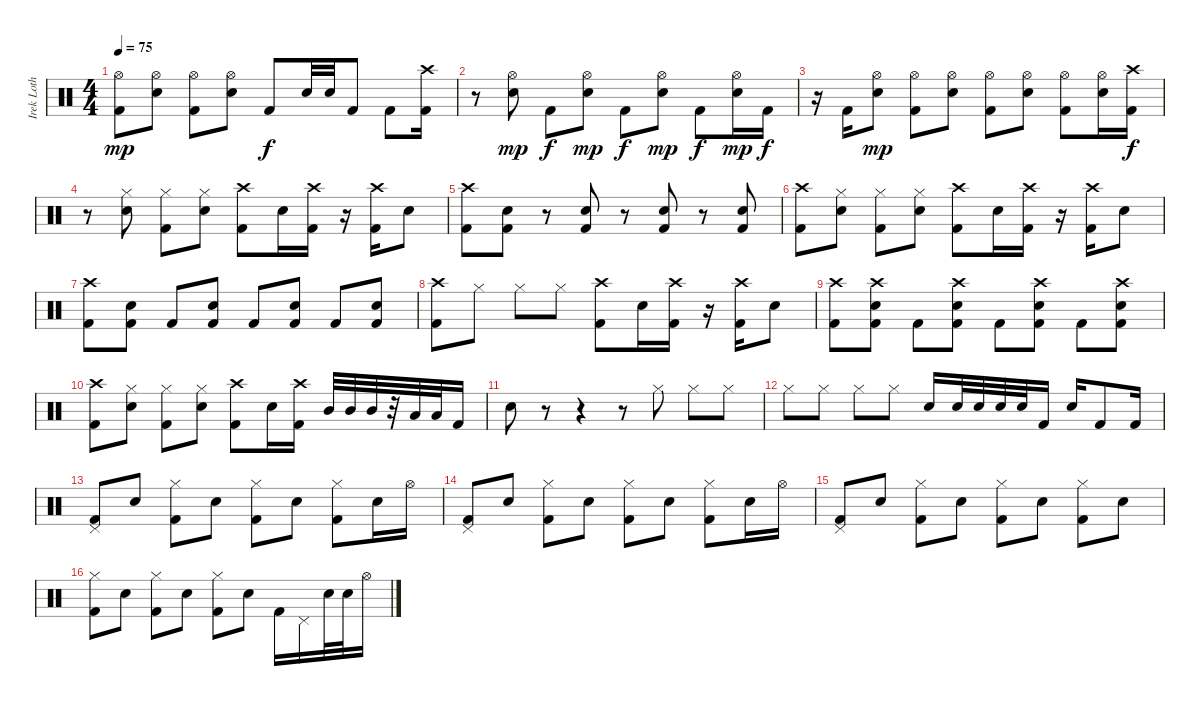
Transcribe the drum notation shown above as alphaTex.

\track ("Irek Loth" "Irek Loth") {instrument percussion}
\staff {score}
\articulation defaults
\ts (4 4)
\tempo 75
\clef neutral
\ks c
("Hi-Hat (open)" "Kick (hit) 2").8{dy mp} ("Snare (hit) 2" "Hi-Hat (open)").8 ("Hi-Hat (open)" "Kick (hit) 2").8 ("Snare (hit) 2" "Hi-Hat (open)").8 "Kick (hit) 2".8{dy f} "Snare (hit) 2".32 "Snare (hit) 2".32 "Kick (hit) 2".8 "Kick (hit) 2".8 ("Crash high (hit)" "Kick (hit) 2").16 |
r.8 ("Snare (hit) 2" "Hi-Hat (open)").8{dy mp} "Kick (hit) 2".8{dy f} ("Snare (hit) 2" "Hi-Hat (open)").8{dy mp} "Kick (hit) 2".8{dy f} ("Snare (hit) 2" "Hi-Hat (open)").8{dy mp} "Kick (hit) 2".8{dy f} ("Snare (hit) 2" "Hi-Hat (open)").16{dy mp} "Kick (hit) 2".16{dy f} |
r.16 "Kick (hit) 2".16 ("Snare (hit) 2" "Hi-Hat (open)").8{dy mp} ("Hi-Hat (open)" "Kick (hit) 2").8 ("Snare (hit) 2" "Hi-Hat (open)").8 ("Hi-Hat (open)" "Kick (hit) 2").8 ("Snare (hit) 2" "Hi-Hat (open)").8 ("Hi-Hat (open)" "Kick (hit) 2").8 ("Snare (hit) 2" "Hi-Hat (open)").16 ("Crash high (hit)" "Kick (hit) 2").16{dy f} |
r.8 ("Snare (hit) 2" "Hi-Hat (closed)").8 ("Hi-Hat (closed)" "Kick (hit) 2").8 ("Snare (hit) 2" "Hi-Hat (closed)").8 ("Crash high (hit)" "Kick (hit) 2").8 "Snare (hit) 2".16 ("Crash high (hit)" "Kick (hit) 2").16 r.16 ("Crash high (hit)" "Kick (hit) 2").16 "Snare (hit) 2".8 |
("Crash high (hit)" "Kick (hit) 2").8 ("Snare (hit) 2" "Kick (hit) 2").8 r.8 ("Snare (hit) 2" "Kick (hit) 2").8 r.8 ("Snare (hit) 2" "Kick (hit) 2").8 r.8 ("Snare (hit) 2" "Kick (hit) 2").8 |
("Crash high (hit)" "Kick (hit) 2").8 ("Snare (hit) 2" "Hi-Hat (closed)").8 ("Hi-Hat (closed)" "Kick (hit) 2").8 ("Snare (hit) 2" "Hi-Hat (closed)").8 ("Crash high (hit)" "Kick (hit) 2").8 "Snare (hit) 2".16 ("Crash high (hit)" "Kick (hit) 2").16 r.16 ("Crash high (hit)" "Kick (hit) 2").16 "Snare (hit) 2".8 |
("Crash high (hit)" "Kick (hit) 2").8 ("Snare (hit) 2" "Kick (hit) 2").8 "Kick (hit) 2".8 ("Snare (hit) 2" "Kick (hit) 2").8 "Kick (hit) 2".8 ("Snare (hit) 2" "Kick (hit) 2").8 "Kick (hit) 2".8 ("Snare (hit) 2" "Kick (hit) 2").8 |
("Crash high (hit)" "Kick (hit) 2").8 "Hi-Hat (closed)".8 "Hi-Hat (closed)".8 "Hi-Hat (closed)".8 ("Crash high (hit)" "Kick (hit) 2").8 "Snare (hit) 2".16 ("Crash high (hit)" "Kick (hit) 2").16 r.16 ("Crash high (hit)" "Kick (hit) 2").16 "Snare (hit) 2".8 |
("Crash high (hit)" "Kick (hit) 2").8 ("Snare (hit) 2" "Kick (hit) 2" "Crash high (hit)").8 "Kick (hit) 2".8 ("Snare (hit) 2" "Kick (hit) 2" "Crash high (hit)").8 "Kick (hit) 2".8 ("Snare (hit) 2" "Kick (hit) 2" "Crash high (hit)").8 "Kick (hit) 2".8 ("Snare (hit) 2" "Kick (hit) 2" "Crash high (hit)").8 |
("Crash high (hit)" "Kick (hit) 2").8 ("Snare (hit) 2" "Hi-Hat (closed)").8 ("Hi-Hat (closed)" "Kick (hit) 2").8 ("Snare (hit) 2" "Hi-Hat (closed)").8 ("Crash high (hit)" "Kick (hit) 2").8 "Snare (hit) 2".16 ("Crash high (hit)" "Kick (hit) 2").16 "Mid Tom (hit)".32 "Mid Tom (hit)".32 "Mid Tom (hit)".32 r.32 "Low Tom (hit)".32 "Low Tom (hit)".32 "Kick (hit) 2".16 |
"Snare (hit) 2".8 r.8 r.4 r.8 "Hi-Hat (closed)".8 "Hi-Hat (closed)".8 "Hi-Hat (closed)".8 |
"Hi-Hat (closed)".8 "Hi-Hat (closed)".8 "Hi-Hat (closed)".8 "Hi-Hat (closed)".8 "Snare (hit) 2".16 "Snare (hit) 2".32 "Snare (hit) 2".32 "Snare (hit) 2".32 "Snare (hit) 2".32 "Kick (hit) 2".16 "Snare (hit) 2".16 "Kick (hit) 2".8 "Kick (hit) 2".16 |
("Pedal Hi-Hat (hit)" "Kick (hit) 2").8 "Snare (hit) 2".8 ("Hi-Hat (closed)" "Kick (hit) 2").8 "Snare (hit) 2".8 ("Hi-Hat (closed)" "Kick (hit) 2").8 "Snare (hit) 2".8 ("Hi-Hat (closed)" "Kick (hit) 2").8 "Snare (hit) 2".16 "Hi-Hat (open)".16 |
("Pedal Hi-Hat (hit)" "Kick (hit) 2").8 "Snare (hit) 2".8 ("Hi-Hat (closed)" "Kick (hit) 2").8 "Snare (hit) 2".8 ("Hi-Hat (closed)" "Kick (hit) 2").8 "Snare (hit) 2".8 ("Hi-Hat (closed)" "Kick (hit) 2").8 "Snare (hit) 2".16 "Hi-Hat (open)".16 |
("Pedal Hi-Hat (hit)" "Kick (hit) 2").8 "Snare (hit) 2".8 ("Hi-Hat (closed)" "Kick (hit) 2").8 "Snare (hit) 2".8 ("Hi-Hat (closed)" "Kick (hit) 2").8 "Snare (hit) 2".8 ("Hi-Hat (closed)" "Kick (hit) 2").8 "Snare (hit) 2".8 |
("Hi-Hat (closed)" "Kick (hit) 2").8 "Snare (hit) 2".8 ("Hi-Hat (closed)" "Kick (hit) 2").8 "Snare (hit) 2".8 ("Hi-Hat (closed)" "Kick (hit) 2").8 "Snare (hit) 2".8 "Kick (hit) 2".16 "Pedal Hi-Hat (hit)".16 "Snare (hit) 2".32 "Snare (hit) 2".32 "Hi-Hat (open)".16
